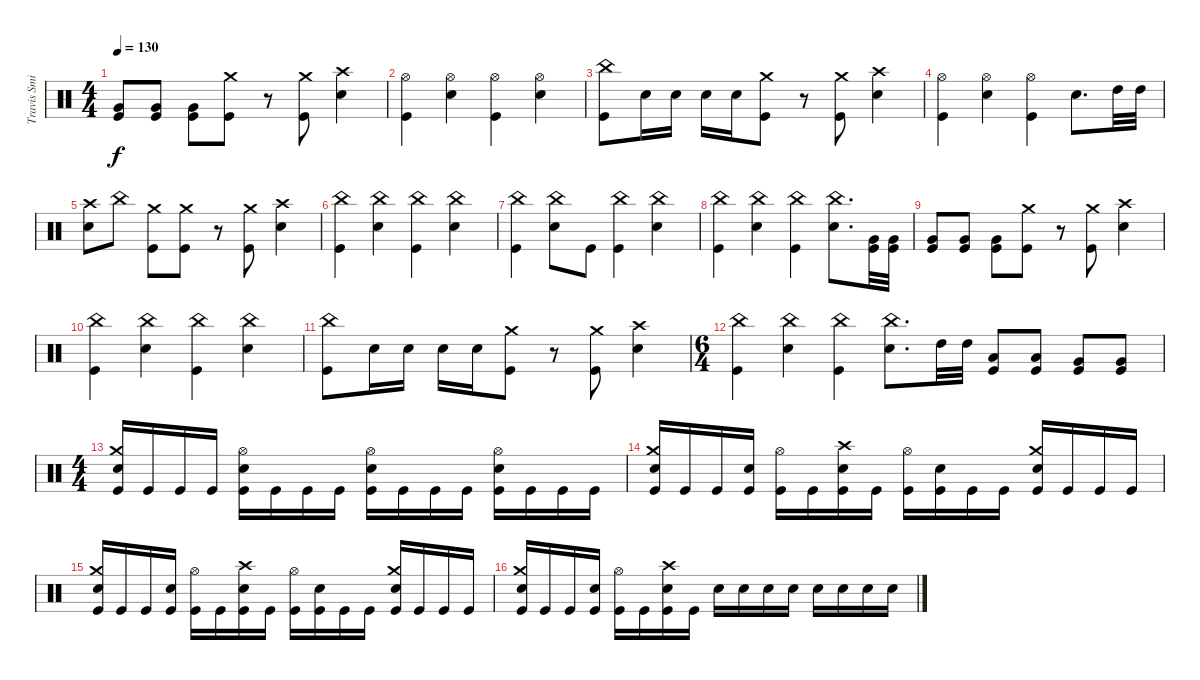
\track ("Travis Smith" "Travis Smi") {instrument percussion}
\staff {score}
\articulation defaults
\ts (4 4)
\tempo 130
\clef neutral
\ks c
("Very Low Tom (hit)" "Kick (hit)").8{dy f} ("Very Low Tom (hit)" "Kick (hit)").8 ("Very Low Tom (hit)" "Kick (hit)").8 ("Crash medium (hit)" "Kick (hit)").8 r.8 ("Crash medium (hit)" "Kick (hit)").8 ("Crash high (hit)" "Snare (hit) 2").4 |
("Hi-Hat (open)" "Kick (hit)").4 ("Hi-Hat (open)" "Snare (hit) 2").4 ("Hi-Hat (open)" "Kick (hit)").4 ("Hi-Hat (open)" "Snare (hit) 2").4 |
("China (hit)" "Kick (hit)").8 "Snare (hit) 2".16 "Snare (hit) 2".16 "Snare (hit) 2".16 "Snare (hit) 2".16 ("Crash medium (hit)" "Kick (hit)").8 r.8 ("Crash medium (hit)" "Kick (hit)").8 ("Crash high (hit)" "Snare (hit) 2").4 |
("Hi-Hat (open)" "Kick (hit)").4 ("Hi-Hat (open)" "Snare (hit) 2").4 ("Hi-Hat (open)" "Kick (hit)").4 "Snare (hit) 2".8{d} "High Tom (hit)".32 "High Tom (hit)".32 |
("Crash high (hit)" "Snare (hit) 2").8 "China (hit)".8 ("Crash medium (hit)" "Kick (hit)").8 ("Crash medium (hit)" "Kick (hit)").8 r.8 ("Crash medium (hit)" "Kick (hit)").8 ("Crash high (hit)" "Snare (hit) 2").4 |
("China (hit)" "Kick (hit)").4 ("China (hit)" "Snare (hit) 2").4 ("China (hit)" "Kick (hit)").4 ("China (hit)" "Snare (hit) 2").4 |
("China (hit)" "Kick (hit)").4 ("China (hit)" "Snare (hit) 2").8 "Kick (hit)".8 ("China (hit)" "Kick (hit)").4 ("China (hit)" "Snare (hit) 2").4 |
("China (hit)" "Kick (hit)").4 ("China (hit)" "Snare (hit) 2").4 ("China (hit)" "Kick (hit)").4 ("China (hit)" "Snare (hit) 2").8{d} ("Very Low Tom (hit)" "Kick (hit)").32 ("Very Low Tom (hit)" "Kick (hit)").32 |
("Very Low Tom (hit)" "Kick (hit)").8 ("Very Low Tom (hit)" "Kick (hit)").8 ("Very Low Tom (hit)" "Kick (hit)").8 ("Crash medium (hit)" "Kick (hit)").8 r.8 ("Crash medium (hit)" "Kick (hit)").8 ("Crash high (hit)" "Snare (hit) 2").4 |
("China (hit)" "Kick (hit)").4 ("China (hit)" "Snare (hit) 2").4 ("China (hit)" "Kick (hit)").4 ("China (hit)" "Snare (hit) 2").4 |
("China (hit)" "Kick (hit)").8 "Snare (hit) 2".16 "Snare (hit) 2".16 "Snare (hit) 2".16 "Snare (hit) 2".16 ("Crash medium (hit)" "Kick (hit)").8 r.8 ("Crash medium (hit)" "Kick (hit)").8 ("Crash high (hit)" "Snare (hit) 2").4 |
\ts (6 4)
("China (hit)" "Kick (hit)").4 ("China (hit)" "Snare (hit) 2").4 ("China (hit)" "Kick (hit)").4 ("China (hit)" "Snare (hit) 2").8{d} "High Tom (hit)".32 "High Tom (hit)".32 ("Low Tom (hit)" "Kick (hit)").8 ("Low Tom (hit)" "Kick (hit)").8 ("Very Low Tom (hit)" "Kick (hit)").8 ("Very Low Tom (hit)" "Kick (hit)").8 |
\ts (4 4)
("Crash medium (hit)" "Snare (hit) 2" "Kick (hit)").16 "Kick (hit)".16 "Kick (hit)".16 "Kick (hit)".16 ("Hi-Hat (open)" "Snare (hit) 2" "Kick (hit)").16 "Kick (hit)".16 "Kick (hit)".16 "Kick (hit)".16 ("Hi-Hat (open)" "Snare (hit) 2" "Kick (hit)").16 "Kick (hit)".16 "Kick (hit)".16 "Kick (hit)".16 ("Hi-Hat (open)" "Snare (hit) 2" "Kick (hit)").16 "Kick (hit)".16 "Kick (hit)".16 "Kick (hit)".16 |
("Crash medium (hit)" "Snare (hit) 2" "Kick (hit)").16 "Kick (hit)".16 "Kick (hit)".16 ("Snare (hit) 2" "Kick (hit)").16 ("Hi-Hat (open)" "Kick (hit)").16 "Kick (hit)".16 ("Crash high (hit)" "Snare (hit) 2" "Kick (hit)").16 "Kick (hit)".16 ("Hi-Hat (open)" "Kick (hit)").16 ("Snare (hit) 2" "Kick (hit)").16 "Kick (hit)".16 "Kick (hit)".16 ("Crash medium (hit)" "Snare (hit) 2" "Kick (hit)").16 "Kick (hit)".16 "Kick (hit)".16 "Kick (hit)".16 |
("Crash medium (hit)" "Snare (hit) 2" "Kick (hit)").16 "Kick (hit)".16 "Kick (hit)".16 ("Snare (hit) 2" "Kick (hit)").16 ("Hi-Hat (open)" "Kick (hit)").16 "Kick (hit)".16 ("Crash high (hit)" "Snare (hit) 2" "Kick (hit)").16 "Kick (hit)".16 ("Hi-Hat (open)" "Kick (hit)").16 ("Snare (hit) 2" "Kick (hit)").16 "Kick (hit)".16 "Kick (hit)".16 ("Crash medium (hit)" "Snare (hit) 2" "Kick (hit)").16 "Kick (hit)".16 "Kick (hit)".16 "Kick (hit)".16 |
("Crash medium (hit)" "Snare (hit) 2" "Kick (hit)").16 "Kick (hit)".16 "Kick (hit)".16 ("Snare (hit) 2" "Kick (hit)").16 ("Hi-Hat (open)" "Kick (hit)").16 "Kick (hit)".16 ("Crash high (hit)" "Snare (hit) 2" "Kick (hit)").16 "Kick (hit)".16 "Snare (hit) 2".16 "Snare (hit) 2".16 "Snare (hit) 2".16 "Snare (hit) 2".16 "Snare (hit) 2".16 "Snare (hit) 2".16 "Snare (hit) 2".16 "Snare (hit) 2".16
